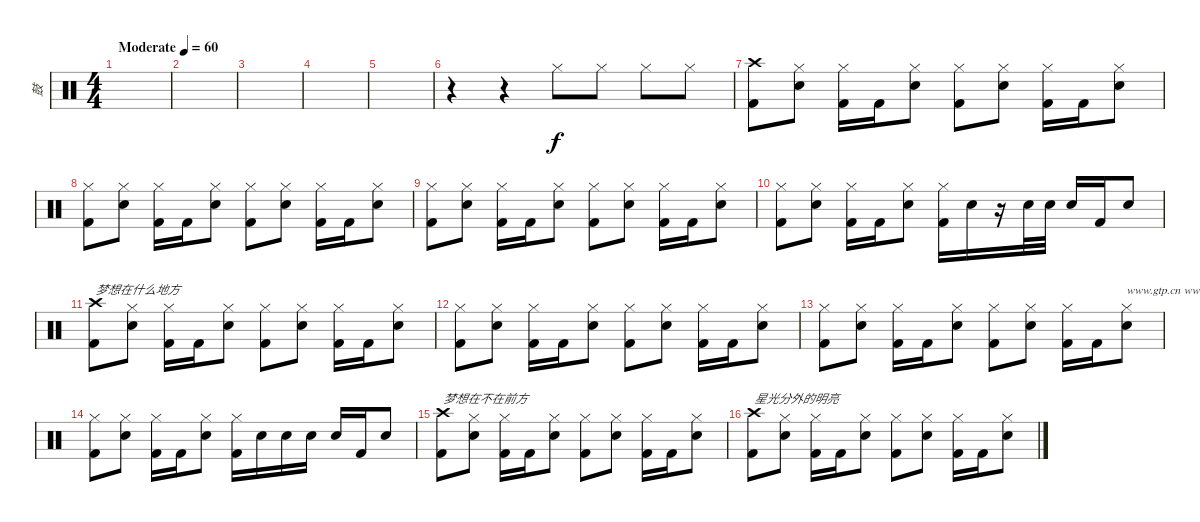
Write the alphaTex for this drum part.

\track ("鼓" "鼓") {instrument percussion}
\staff {score}
\articulation defaults
\ts (4 4)
\tempo (60 "Moderate")
\clef neutral
\ks c
|
|
|
|
|
r.4 r.4 "Hi-Hat (closed)".8 "Hi-Hat (closed)".8 "Hi-Hat (closed)".8 "Hi-Hat (closed)".8 |
("Crash high (hit)" "Kick (hit) 2").8 ("Hi-Hat (closed)" "Snare (hit) 2").8 ("Hi-Hat (closed)" "Kick (hit) 2").16 "Kick (hit) 2".16 ("Hi-Hat (closed)" "Snare (hit) 2").8 ("Hi-Hat (closed)" "Kick (hit) 2").8 ("Hi-Hat (closed)" "Snare (hit) 2").8 ("Hi-Hat (closed)" "Kick (hit) 2").16 "Kick (hit) 2".16 ("Hi-Hat (closed)" "Snare (hit) 2").8 |
("Hi-Hat (closed)" "Kick (hit) 2").8 ("Hi-Hat (closed)" "Snare (hit) 2").8 ("Hi-Hat (closed)" "Kick (hit) 2").16 "Kick (hit) 2".16 ("Hi-Hat (closed)" "Snare (hit) 2").8 ("Hi-Hat (closed)" "Kick (hit) 2").8 ("Hi-Hat (closed)" "Snare (hit) 2").8 ("Hi-Hat (closed)" "Kick (hit) 2").16 "Kick (hit) 2".16 ("Hi-Hat (closed)" "Snare (hit) 2").8 |
("Hi-Hat (closed)" "Kick (hit) 2").8 ("Hi-Hat (closed)" "Snare (hit) 2").8 ("Hi-Hat (closed)" "Kick (hit) 2").16 "Kick (hit) 2".16 ("Hi-Hat (closed)" "Snare (hit) 2").8 ("Hi-Hat (closed)" "Kick (hit) 2").8 ("Hi-Hat (closed)" "Snare (hit) 2").8 ("Hi-Hat (closed)" "Kick (hit) 2").16 "Kick (hit) 2".16 ("Hi-Hat (closed)" "Snare (hit) 2").8 |
("Hi-Hat (closed)" "Kick (hit) 2").8 ("Hi-Hat (closed)" "Snare (hit) 2").8 ("Hi-Hat (closed)" "Kick (hit) 2").16 "Kick (hit) 2".16 ("Hi-Hat (closed)" "Snare (hit) 2").8 ("Hi-Hat (closed)" "Kick (hit) 2").16 "Snare (hit) 2".16 r.16 "Snare (hit) 2".32 "Snare (hit) 2".32 "Snare (hit) 2".16 "Kick (hit) 2".16 "Snare (hit) 2".8 |
("Crash high (hit)" "Kick (hit) 2").8{txt "梦想在什么地方"} ("Hi-Hat (closed)" "Snare (hit) 2").8 ("Hi-Hat (closed)" "Kick (hit) 2").16 "Kick (hit) 2".16 ("Hi-Hat (closed)" "Snare (hit) 2").8 ("Hi-Hat (closed)" "Kick (hit) 2").8 ("Hi-Hat (closed)" "Snare (hit) 2").8 ("Hi-Hat (closed)" "Kick (hit) 2").16 "Kick (hit) 2".16 ("Hi-Hat (closed)" "Snare (hit) 2").8 |
("Hi-Hat (closed)" "Kick (hit) 2").8 ("Hi-Hat (closed)" "Snare (hit) 2").8 ("Hi-Hat (closed)" "Kick (hit) 2").16 "Kick (hit) 2".16 ("Hi-Hat (closed)" "Snare (hit) 2").8 ("Hi-Hat (closed)" "Kick (hit) 2").8 ("Hi-Hat (closed)" "Snare (hit) 2").8 ("Hi-Hat (closed)" "Kick (hit) 2").16 "Kick (hit) 2".16 ("Hi-Hat (closed)" "Snare (hit) 2").8 |
("Hi-Hat (closed)" "Kick (hit) 2").8 ("Hi-Hat (closed)" "Snare (hit) 2").8 ("Hi-Hat (closed)" "Kick (hit) 2").16 "Kick (hit) 2".16 ("Hi-Hat (closed)" "Snare (hit) 2").8 ("Hi-Hat (closed)" "Kick (hit) 2").8 ("Hi-Hat (closed)" "Snare (hit) 2").8 ("Hi-Hat (closed)" "Kick (hit) 2").16 "Kick (hit) 2".16 ("Hi-Hat (closed)" "Snare (hit) 2").8{txt "www.gtp.cn www.51gtp.com联合为您提供优秀的GTP!"} |
("Hi-Hat (closed)" "Kick (hit) 2").8 ("Hi-Hat (closed)" "Snare (hit) 2").8 ("Hi-Hat (closed)" "Kick (hit) 2").16 "Kick (hit) 2".16 ("Hi-Hat (closed)" "Snare (hit) 2").8 ("Hi-Hat (closed)" "Kick (hit) 2").16 "Snare (hit) 2".16 "Snare (hit) 2".16 "Snare (hit) 2".16 "Snare (hit) 2".16 "Kick (hit) 2".16 "Snare (hit) 2".8 |
("Crash high (hit)" "Kick (hit) 2").8{txt "梦想在不在前方"} ("Hi-Hat (closed)" "Snare (hit) 2").8 ("Hi-Hat (closed)" "Kick (hit) 2").16 "Kick (hit) 2".16 ("Hi-Hat (closed)" "Snare (hit) 2").8 ("Hi-Hat (closed)" "Kick (hit) 2").8 ("Hi-Hat (closed)" "Snare (hit) 2").8 ("Hi-Hat (closed)" "Kick (hit) 2").16 "Kick (hit) 2".16 ("Hi-Hat (closed)" "Snare (hit) 2").8 |
("Crash high (hit)" "Kick (hit) 2").8{txt "星光分外的明亮"} ("Hi-Hat (closed)" "Snare (hit) 2").8 ("Hi-Hat (closed)" "Kick (hit) 2").16 "Kick (hit) 2".16 ("Hi-Hat (closed)" "Snare (hit) 2").8 ("Hi-Hat (closed)" "Kick (hit) 2").8 ("Hi-Hat (closed)" "Snare (hit) 2").8 ("Hi-Hat (closed)" "Kick (hit) 2").16 "Kick (hit) 2".16 ("Hi-Hat (closed)" "Snare (hit) 2").8
